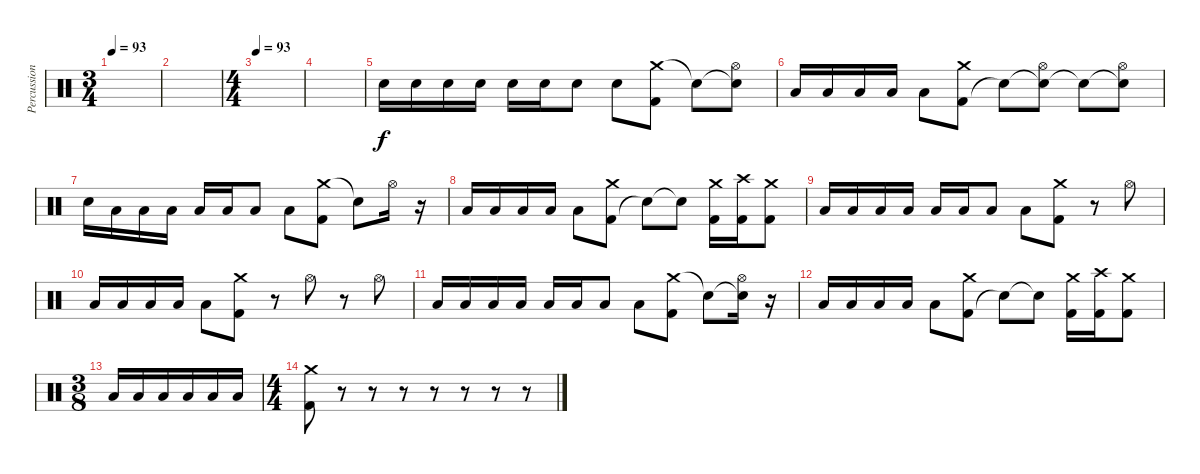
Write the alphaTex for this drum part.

\track ("Percussion" "Percussion") {instrument percussion}
\staff {score}
\articulation defaults
\ts (3 4)
\tempo 93
\clef neutral
\ks c
|
|
\ts (4 4)
\tempo 93
|
|
"Electric Snare (hit)".16 "Electric Snare (hit)".16 "Electric Snare (hit)".16 "Electric Snare (hit)".16 "Electric Snare (hit)".16 "Electric Snare (hit)".16 "Electric Snare (hit)".8 "Electric Snare (hit)".8 ("Crash medium (hit)" "Kick (hit) 2").8 "Snare (hit)"{t}.8 ("Snare (hit)"{t} "Hi-Hat (open)").8 |
"Low Tom (hit)".16 "Low Tom (hit)".16 "Low Tom (hit)".16 "Low Tom (hit)".16 "Low Tom (hit)".8 ("Kick (hit) 2" "Crash medium (hit)").8 "Snare (hit)"{t}.8 ("Snare (hit)"{t} "Hi-Hat (open)").8 "Snare (hit)"{t}.8 ("Snare (hit)"{t} "Hi-Hat (open)").8 |
"Electric Snare (hit)".16 "Low Tom (hit)".16 "Low Tom (hit)".16 "Low Tom (hit)".16 "Low Tom (hit)".16 "Low Tom (hit)".16 "Low Tom (hit)".8 "Low Tom (hit)".8 ("Crash medium (hit)" "Kick (hit) 2").8 "Snare (hit)"{t}.8 "Hi-Hat (open)".16 r.16 |
"Low Tom (hit)".16 "Low Tom (hit)".16 "Low Tom (hit)".16 "Low Tom (hit)".16 "Low Tom (hit)".8 ("Kick (hit) 2" "Crash medium (hit)").8 "Snare (hit)"{t}.8 "Snare (hit)"{t}.8 ("Crash medium (hit)" "Kick (hit) 2").16 ("Crash high (hit)" "Kick (hit) 2").16 ("Crash medium (hit)" "Kick (hit) 2").8 |
"Low Tom (hit)".16 "Low Tom (hit)".16 "Low Tom (hit)".16 "Low Tom (hit)".16 "Low Tom (hit)".16 "Low Tom (hit)".16 "Low Tom (hit)".8 "Low Tom (hit)".8 ("Crash medium (hit)" "Kick (hit) 2").8 r.8 "Hi-Hat (open)".8 |
"Low Tom (hit)".16 "Low Tom (hit)".16 "Low Tom (hit)".16 "Low Tom (hit)".16 "Low Tom (hit)".8 ("Kick (hit) 2" "Crash medium (hit)").8 r.8 "Hi-Hat (open)".8 r.8 "Hi-Hat (open)".8 |
"Low Tom (hit)".16 "Low Tom (hit)".16 "Low Tom (hit)".16 "Low Tom (hit)".16 "Low Tom (hit)".16 "Low Tom (hit)".16 "Low Tom (hit)".8 "Low Tom (hit)".8 ("Crash medium (hit)" "Kick (hit) 2").8 "Snare (hit)"{t}.8 ("Snare (hit)"{t} "Hi-Hat (open)").16 r.16 |
"Low Tom (hit)".16 "Low Tom (hit)".16 "Low Tom (hit)".16 "Low Tom (hit)".16 "Low Tom (hit)".8 ("Kick (hit) 2" "Crash medium (hit)").8 "Snare (hit)"{t}.8 "Snare (hit)"{t}.8 ("Crash medium (hit)" "Kick (hit) 2").16 ("Crash high (hit)" "Kick (hit) 2").16 ("Crash medium (hit)" "Kick (hit) 2").8 |
\ts (3 8)
"Low Tom (hit)".16 "Low Tom (hit)".16 "Low Tom (hit)".16 "Low Tom (hit)".16 "Low Tom (hit)".16 "Low Tom (hit)".16 |
\ts (4 4)
("Crash medium (hit)" "Kick (hit) 2").8 r.8 r.8 r.8 r.8 r.8 r.8 r.8
